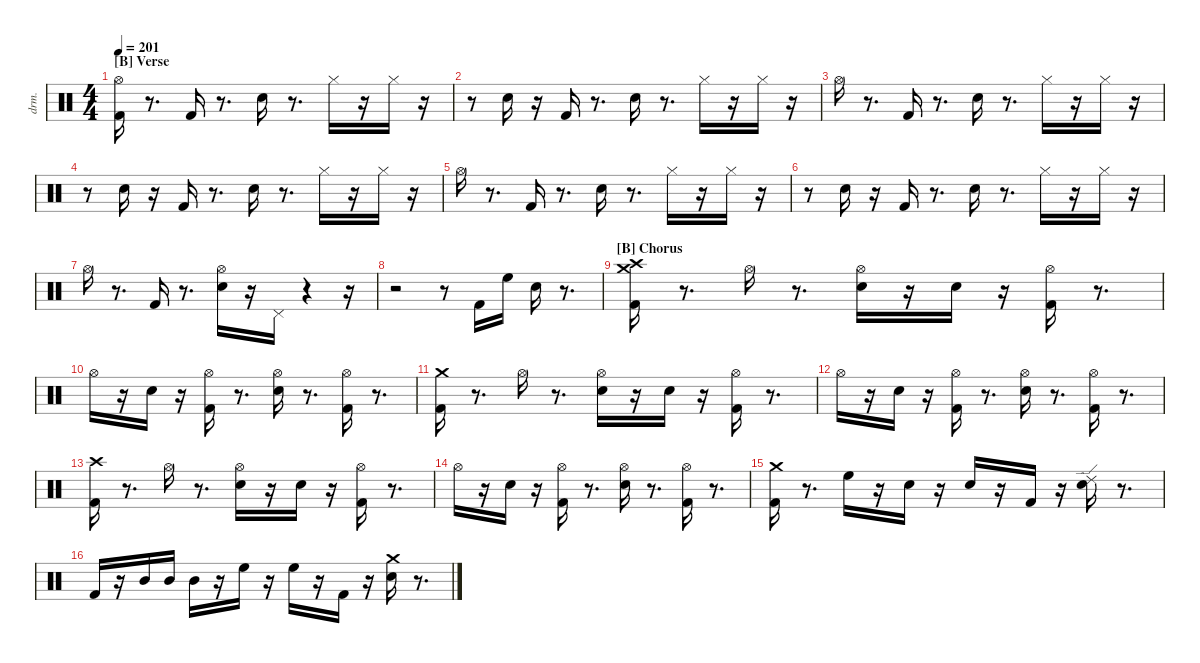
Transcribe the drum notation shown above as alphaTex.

\defaultSystemsLayout 4
\hideDynamics
\bracketExtendMode nobrackets
\otherSystemsTrackNameOrientation horizontal
\track ("Drums" "drm.") {instrument percussion}
\staff {score}
\articulation defaults
\ts (4 4)
\section ("B" "Verse")
\tempo 201
\clef neutral
\ks aminor
("Kick (hit) 2" "Hi-Hat (open)"{acc #}).16{dy ff beam Down} r.8{d beam Down} "Kick (hit) 2".16{dy f beam Up} r.8{d beam Up} "Snare (hit) 2".16{dy fff beam Down} r.8{d beam Down} "Hi-Hat (closed)"{acc #}.16{dy ff beam Down} r.16{beam Down} "Hi-Hat (closed)"{acc #}.16{dy fff beam Down} r.16{beam Down} |
r.8{beam Down} "Snare (hit) 2".16{dy f beam Down} r.16{beam Down} "Kick (hit) 2".16{dy ff beam Up} r.8{d beam Up} "Snare (hit) 2".16{beam Down} r.8{d beam Down} "Hi-Hat (closed)"{acc #}.16{dy fff beam Down} r.16{beam Down} "Hi-Hat (closed)"{acc #}.16{dy mf beam Down} r.16{beam Down} |
"Hi-Hat (open)"{acc #}.16{dy fff beam Down} r.8{d beam Down} "Kick (hit) 2".16{dy ff beam Up} r.8{d beam Up} "Snare (hit) 2".16{dy fff beam Down} r.8{d beam Down} "Hi-Hat (closed)"{acc #}.16{dy ff beam Down} r.16{beam Down} "Hi-Hat (closed)"{acc #}.16{dy fff beam Down} r.16{beam Down} |
r.8{beam Down} "Snare (hit) 2".16{dy f beam Down} r.16{beam Down} "Kick (hit) 2".16{dy ff beam Up} r.8{d beam Up} "Snare (hit) 2".16{beam Down} r.8{d beam Down} "Hi-Hat (closed)"{acc #}.16{dy fff beam Down} r.16{beam Down} "Hi-Hat (closed)"{acc #}.16{dy mf beam Down} r.16{beam Down} |
"Hi-Hat (open)"{acc #}.16{dy fff beam Down} r.8{d beam Down} "Kick (hit) 2".16{dy ff beam Up} r.8{d beam Up} "Snare (hit) 2".16{dy fff beam Down} r.8{d beam Down} "Hi-Hat (closed)"{acc #}.16{dy ff beam Down} r.16{beam Down} "Hi-Hat (closed)"{acc #}.16{dy fff beam Down} r.16{beam Down} |
r.8{beam Down} "Snare (hit) 2".16{dy f beam Down} r.16{beam Down} "Kick (hit) 2".16{dy ff beam Up} r.8{d beam Up} "Snare (hit) 2".16{beam Down} r.8{d beam Down} "Hi-Hat (closed)"{acc #}.16{dy fff beam Down} r.16{beam Down} "Hi-Hat (closed)"{acc #}.16{dy mf beam Down} r.16{beam Down} |
"Hi-Hat (open)"{acc #}.16{dy fff beam Down} r.8{d beam Down} "Kick (hit) 2".16{dy ff beam Up} r.8{d beam Up} ("Snare (hit) 2" "Hi-Hat (open)"{acc #}).16{dy fff beam Down} r.16{beam Down} "Pedal Hi-Hat (hit)"{acc #}.16{dy ff beam Down} r.4{beam Down} r.16{beam Down} |
r.2{beam Down} r.8{beam Down} "Kick (hit) 2".16{beam Down} "High Floor Tom (hit)".16{beam Down} "Snare (hit) 2".16{beam Down} r.8{d beam Down} |
\section ("B" "Chorus")
("Kick (hit) 2" "Crash high (hit)"{acc #} "Crash medium (hit)").16{beam Down} r.8{d beam Down} "Hi-Hat (open)"{acc #}.16{dy f beam Down} r.8{d beam Down} ("Snare (hit) 2" "Hi-Hat (open)"{acc #}).16{dy ff beam Down} r.16{beam Down} "Snare (hit) 2".16{dy mf beam Down} r.16{beam Down} ("Kick (hit) 2" "Hi-Hat (open)"{acc #}).16{dy ff beam Down} r.8{d beam Down} |
"Hi-Hat (open)"{acc #}.16{dy fff beam Down} r.16{beam Down} "Snare (hit) 2".16{dy ppp beam Down} r.16{beam Down} ("Kick (hit) 2" "Hi-Hat (open)"{acc #}).16{dy ff beam Down} r.8{d beam Down} ("Snare (hit) 2" "Hi-Hat (open)"{acc #}).16{beam Down} r.8{d beam Down} ("Kick (hit) 2" "Hi-Hat (open)"{acc #}).16{beam Down} r.8{d beam Down} |
("Kick (hit) 2" "Crash medium (hit)").16{beam Down} r.8{d beam Down} "Hi-Hat (open)"{acc #}.16{dy f beam Down} r.8{d beam Down} ("Snare (hit) 2" "Hi-Hat (open)"{acc #}).16{dy ff beam Down} r.16{beam Down} "Snare (hit) 2".16{dy mf beam Down} r.16{beam Down} ("Kick (hit) 2" "Hi-Hat (open)"{acc #}).16{dy ff beam Down} r.8{d beam Down} |
"Hi-Hat (open)"{acc #}.16{dy fff beam Down} r.16{beam Down} "Snare (hit) 2".16{dy ppp beam Down} r.16{beam Down} ("Kick (hit) 2" "Hi-Hat (open)"{acc #}).16{dy ff beam Down} r.8{d beam Down} ("Snare (hit) 2" "Hi-Hat (open)"{acc #}).16{beam Down} r.8{d beam Down} ("Kick (hit) 2" "Hi-Hat (open)"{acc #}).16{beam Down} r.8{d beam Down} |
("Kick (hit) 2" "Crash high (hit)"{acc #}).16{beam Down} r.8{d beam Down} "Hi-Hat (open)"{acc #}.16{dy f beam Down} r.8{d beam Down} ("Snare (hit) 2" "Hi-Hat (open)"{acc #}).16{dy ff beam Down} r.16{beam Down} "Snare (hit) 2".16{dy mf beam Down} r.16{beam Down} ("Kick (hit) 2" "Hi-Hat (open)"{acc #}).16{dy ff beam Down} r.8{d beam Down} |
"Hi-Hat (open)"{acc #}.16{dy fff beam Down} r.16{beam Down} "Snare (hit) 2".16{dy ppp beam Down} r.16{beam Down} ("Kick (hit) 2" "Hi-Hat (open)"{acc #}).16{dy ff beam Down} r.8{d beam Down} ("Snare (hit) 2" "Hi-Hat (open)"{acc #}).16{beam Down} r.8{d beam Down} ("Kick (hit) 2" "Hi-Hat (open)"{acc #}).16{beam Down} r.8{d beam Down} |
("Kick (hit) 2" "Crash medium (hit)").16{beam Down} r.8{d beam Down} "High Floor Tom (hit)".16{beam Down} r.16{beam Down} "Snare (hit) 2".16{beam Down} r.16{beam Down} "Snare (hit) 2".16{dy mf beam Up} r.16{beam Up} "Kick (hit) 2".16{dy ff beam Up} r.16{beam Up} ("Snare (hit) 2" "Ride (edge) 2").16{dy f beam Down} r.8{d beam Down} |
"Kick (hit) 2".16{dy ff beam Up} r.16{beam Up} "Mid Tom (hit)".16{beam Up} "Mid Tom (hit)".16{dy mp beam Up} "Mid Tom (hit)".16{dy f beam Down} r.16{beam Down} "High Floor Tom (hit)".16{dy ff beam Down} r.16{beam Down} "High Floor Tom (hit)".16{beam Down} r.16{beam Down} "Kick (hit) 2".16{beam Down} r.16{beam Down} ("Snare (hit) 2" "Crash medium (hit)").16{dy fff beam Down} r.8{d beam Down}
